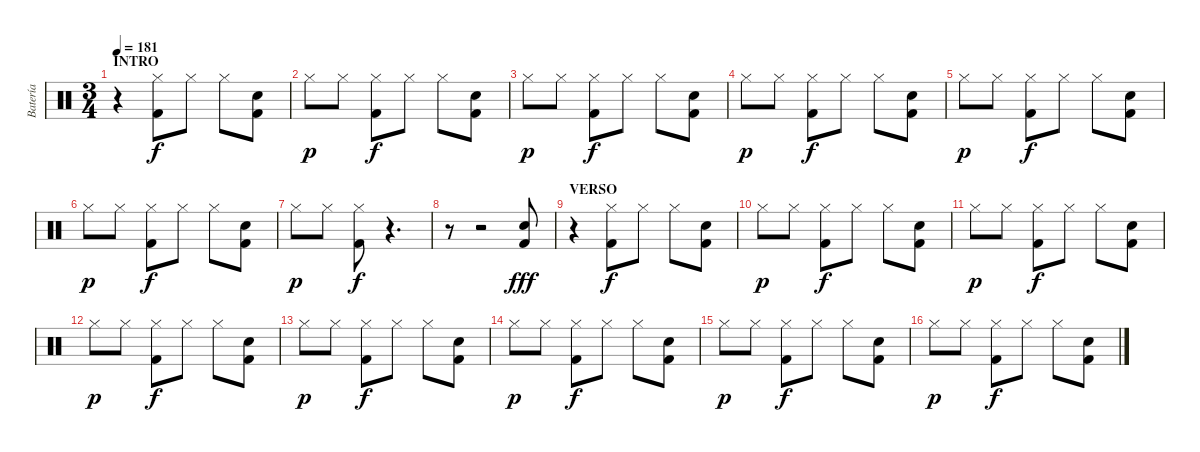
\track ("Batería" "Batería") {instrument percussion}
\staff {score}
\articulation defaults
\ts (3 4)
\section ("" "INTRO")
\tempo 181
\clef neutral
\ks c
r.4{dy f} ("Hi-Hat (closed)" "Kick (hit) 2").8 "Hi-Hat (closed)".8 "Hi-Hat (closed)".8 ("Hand Clap (hit)" "Kick (hit) 2").8 |
"Hi-Hat (closed)".8{dy p} "Hi-Hat (closed)".8 ("Hi-Hat (closed)" "Kick (hit) 2").8{dy f} "Hi-Hat (closed)".8 "Hi-Hat (closed)".8 ("Hand Clap (hit)" "Kick (hit) 2").8 |
"Hi-Hat (closed)".8{dy p} "Hi-Hat (closed)".8 ("Hi-Hat (closed)" "Kick (hit) 2").8{dy f} "Hi-Hat (closed)".8 "Hi-Hat (closed)".8 ("Hand Clap (hit)" "Kick (hit) 2").8 |
"Hi-Hat (closed)".8{dy p} "Hi-Hat (closed)".8 ("Hi-Hat (closed)" "Kick (hit) 2").8{dy f} "Hi-Hat (closed)".8 "Hi-Hat (closed)".8 ("Hand Clap (hit)" "Kick (hit) 2").8 |
"Hi-Hat (closed)".8{dy p} "Hi-Hat (closed)".8 ("Hi-Hat (closed)" "Kick (hit) 2").8{dy f} "Hi-Hat (closed)".8 "Hi-Hat (closed)".8 ("Hand Clap (hit)" "Kick (hit) 2").8 |
"Hi-Hat (closed)".8{dy p} "Hi-Hat (closed)".8 ("Hi-Hat (closed)" "Kick (hit) 2").8{dy f} "Hi-Hat (closed)".8 "Hi-Hat (closed)".8 ("Hand Clap (hit)" "Kick (hit) 2").8 |
"Hi-Hat (closed)".8{dy p} "Hi-Hat (closed)".8 ("Hi-Hat (closed)" "Kick (hit) 2").8{dy f} r.4{d} |
r.8 r.2 ("Electric Snare (hit)" "Kick (hit) 2").8{dy fff} |
\section ("" "VERSO")
r.4 ("Hi-Hat (closed)" "Kick (hit) 2").8{dy f} "Hi-Hat (closed)".8 "Hi-Hat (closed)".8 ("Electric Snare (hit)" "Kick (hit) 2").8 |
"Hi-Hat (closed)".8{dy p} "Hi-Hat (closed)".8 ("Hi-Hat (closed)" "Kick (hit) 2").8{dy f} "Hi-Hat (closed)".8 "Hi-Hat (closed)".8 ("Electric Snare (hit)" "Kick (hit) 2").8 |
"Hi-Hat (closed)".8{dy p} "Hi-Hat (closed)".8 ("Hi-Hat (closed)" "Kick (hit) 2").8{dy f} "Hi-Hat (closed)".8 "Hi-Hat (closed)".8 ("Electric Snare (hit)" "Kick (hit) 2").8 |
"Hi-Hat (closed)".8{dy p} "Hi-Hat (closed)".8 ("Hi-Hat (closed)" "Kick (hit) 2").8{dy f} "Hi-Hat (closed)".8 "Hi-Hat (closed)".8 ("Electric Snare (hit)" "Kick (hit) 2").8 |
"Hi-Hat (closed)".8{dy p} "Hi-Hat (closed)".8 ("Hi-Hat (closed)" "Kick (hit) 2").8{dy f} "Hi-Hat (closed)".8 "Hi-Hat (closed)".8 ("Electric Snare (hit)" "Kick (hit) 2").8 |
"Hi-Hat (closed)".8{dy p} "Hi-Hat (closed)".8 ("Hi-Hat (closed)" "Kick (hit) 2").8{dy f} "Hi-Hat (closed)".8 "Hi-Hat (closed)".8 ("Electric Snare (hit)" "Kick (hit) 2").8 |
"Hi-Hat (closed)".8{dy p} "Hi-Hat (closed)".8 ("Hi-Hat (closed)" "Kick (hit) 2").8{dy f} "Hi-Hat (closed)".8 "Hi-Hat (closed)".8 ("Electric Snare (hit)" "Kick (hit) 2").8 |
"Hi-Hat (closed)".8{dy p} "Hi-Hat (closed)".8 ("Hi-Hat (closed)" "Kick (hit) 2").8{dy f} "Hi-Hat (closed)".8 "Hi-Hat (closed)".8 ("Electric Snare (hit)" "Kick (hit) 2").8
